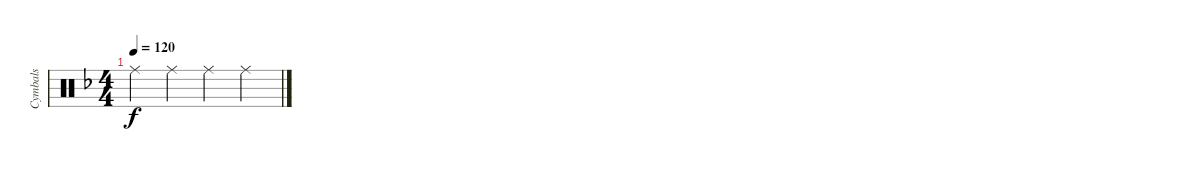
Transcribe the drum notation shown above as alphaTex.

\track ("Cymbals" "Cymbals") {instrument percussion}
\staff {score}
\articulation defaults
\ts (4 4)
\tempo 120
\clef neutral
\ks f "Ride (middle)".4{dy f volume 1} "Ride (middle)".4 "Ride (middle)".4 "Ride (middle)".4
